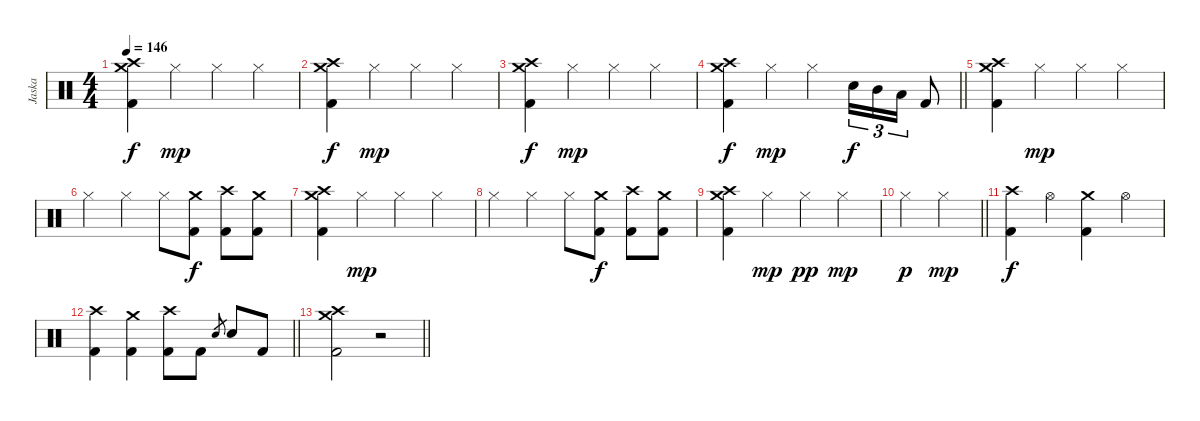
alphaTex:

\track ("Jaska" "Jaska") {instrument percussion}
\staff {score}
\articulation defaults
\ts (4 4)
\tempo 146
\clef neutral
\ks c
("Crash high (hit)" "Crash medium (hit)" "Kick (hit) 2").4{dy f} "Hi-Hat (closed)".4{dy mp} "Hi-Hat (closed)".4 "Hi-Hat (closed)".4 |
("Crash high (hit)" "Crash medium (hit)" "Kick (hit) 2").4{dy f} "Hi-Hat (closed)".4{dy mp} "Hi-Hat (closed)".4 "Hi-Hat (closed)".4 |
("Crash high (hit)" "Crash medium (hit)" "Kick (hit) 2").4{dy f} "Hi-Hat (closed)".4{dy mp} "Hi-Hat (closed)".4 "Hi-Hat (closed)".4 |
\barLineRight lightlight
("Crash high (hit)" "Crash medium (hit)" "Kick (hit) 2").4{dy f} "Hi-Hat (closed)".4{dy mp} "Hi-Hat (closed)".4 "Electric Snare (hit)".16{tu (3 2) dy f} "Mid Tom (hit)".16{tu (3 2)} "Low Tom (hit)".16{tu (3 2)} "Kick (hit) 2".8 |
("Crash high (hit)" "Crash medium (hit)" "Kick (hit) 2").4 "Hi-Hat (closed)".4{dy mp} "Hi-Hat (closed)".4 "Hi-Hat (closed)".4 |
"Hi-Hat (closed)".4 "Hi-Hat (closed)".4 "Hi-Hat (closed)".8 ("Crash medium (hit)" "Kick (hit) 2").8{dy f} ("Crash high (hit)" "Kick (hit) 2").8 ("Crash medium (hit)" "Kick (hit) 2").8 |
("Crash high (hit)" "Crash medium (hit)" "Kick (hit) 2").4 "Hi-Hat (closed)".4{dy mp} "Hi-Hat (closed)".4 "Hi-Hat (closed)".4 |
"Hi-Hat (closed)".4 "Hi-Hat (closed)".4 "Hi-Hat (closed)".8 ("Crash medium (hit)" "Kick (hit) 2").8{dy f} ("Crash high (hit)" "Kick (hit) 2").8 ("Crash medium (hit)" "Kick (hit) 2").8 |
("Crash high (hit)" "Crash medium (hit)" "Kick (hit) 2").4 "Hi-Hat (closed)".4{dy mp} "Hi-Hat (closed)".4{dy pp} "Hi-Hat (closed)".4{dy mp} |
\barLineRight lightlight "Hi-Hat (closed)".4{dy p} "Hi-Hat (closed)".4{dy mp}
|
("Crash high (hit)" "Kick (hit) 2").4{dy f} "Hi-Hat (open)".4 ("Crash medium (hit)" "Kick (hit) 2").4 "Hi-Hat (open)".4 |
\barLineRight lightlight
("Crash high (hit)" "Kick (hit) 2").4 ("Crash medium (hit)" "Kick (hit) 2").4 ("Crash high (hit)" "Kick (hit) 2").8 "Kick (hit) 2".8 "Electric Snare (hit)".8{gr} "Electric Snare (hit)".8 "Kick (hit) 2".8 |
\barLineRight lightlight
("Crash high (hit)" "Crash medium (hit)" "Kick (hit) 2").2 r.2
